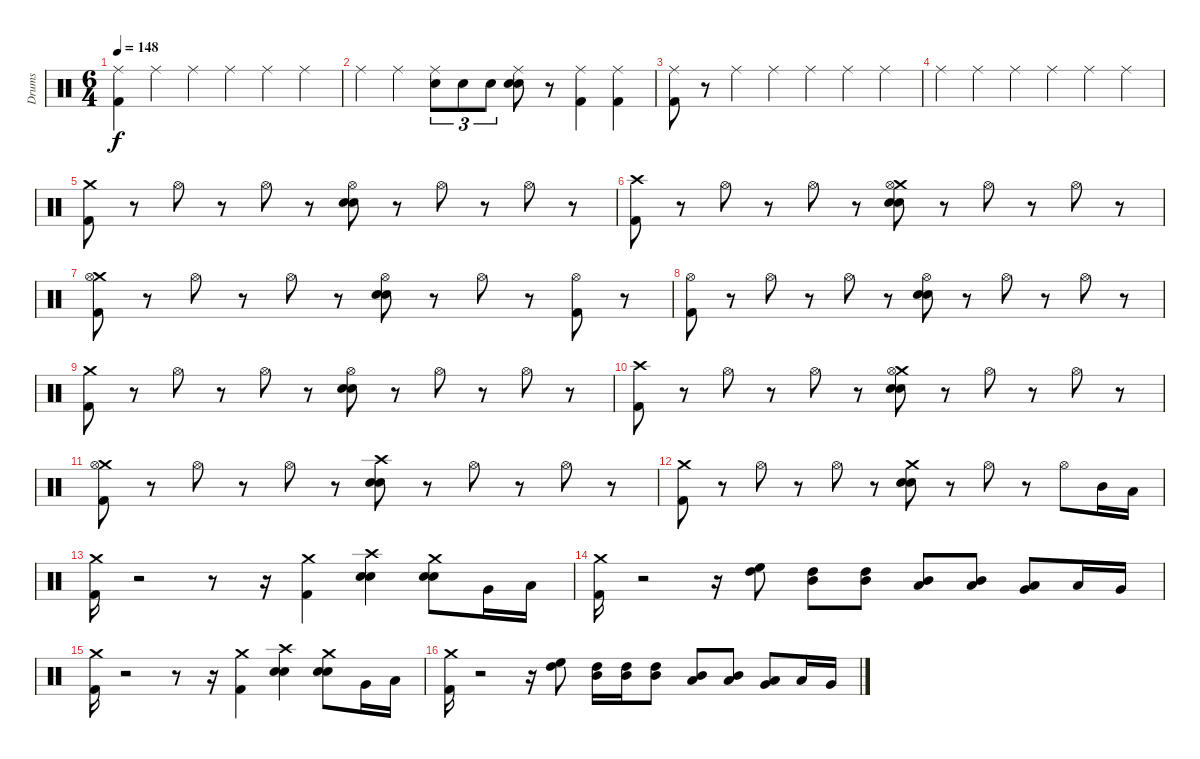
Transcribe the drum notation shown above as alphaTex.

\track ("Drums" "Drums") {instrument percussion}
\staff {score}
\articulation defaults
\ts (6 4)
\tempo 148
\clef neutral
\ks c
("Kick (hit) 2" "Ride (middle)").4{dy f} "Ride (middle)".4 "Ride (middle)".4 "Ride (middle)".4 "Ride (middle)".4 "Ride (middle)".4 |
"Ride (middle)".4 "Ride (middle)".4 ("Snare (hit) 2" "Ride (middle)").8{tu (3 2)} "Snare (hit) 2".8{tu (3 2)} "Snare (hit) 2".8{tu (3 2)} ("Electric Snare (hit)" "Snare (hit) 2" "Ride (middle)").8 r.8 ("Kick (hit) 2" "Ride (middle)").4 ("Kick (hit) 2" "Ride (middle)").4 |
("Kick (hit) 2" "Ride (middle)").8 r.8 "Ride (middle)".4 "Ride (middle)".4 "Ride (middle)".4 "Ride (middle)".4 "Ride (middle)".4 |
"Ride (middle)".4 "Ride (middle)".4 "Ride (middle)".4 "Ride (middle)".4 "Ride (middle)".4 "Ride (middle)".4 |
("Crash medium (hit)" "Kick (hit) 2").8 r.8 "Hi-Hat (open)".8 r.8 "Hi-Hat (open)".8 r.8 ("Hi-Hat (open)" "Snare (hit) 2" "Electric Snare (hit)").8 r.8 "Hi-Hat (open)".8 r.8 "Hi-Hat (open)".8 r.8 |
("Crash high (hit)" "Kick (hit) 2").8 r.8 "Hi-Hat (open)".8 r.8 "Hi-Hat (open)".8 r.8 ("Crash medium (hit)" "Snare (hit) 2" "Electric Snare (hit)" "Hi-Hat (open)").8 r.8 "Hi-Hat (open)".8 r.8 "Hi-Hat (open)".8 r.8 |
("Crash medium (hit)" "Kick (hit) 2" "Hi-Hat (open)").8 r.8 "Hi-Hat (open)".8 r.8 "Hi-Hat (open)".8 r.8 ("Snare (hit) 2" "Electric Snare (hit)" "Hi-Hat (open)").8 r.8 "Hi-Hat (open)".8 r.8 ("Kick (hit) 2" "Hi-Hat (open)").8 r.8 |
("Kick (hit) 2" "Hi-Hat (open)").8 r.8 "Hi-Hat (open)".8 r.8 "Hi-Hat (open)".8 r.8 ("Snare (hit) 2" "Electric Snare (hit)" "Hi-Hat (open)").8 r.8 "Hi-Hat (open)".8 r.8 "Hi-Hat (open)".8 r.8 |
("Crash medium (hit)" "Kick (hit) 2").8 r.8 "Hi-Hat (open)".8 r.8 "Hi-Hat (open)".8 r.8 ("Hi-Hat (open)" "Snare (hit) 2" "Electric Snare (hit)").8 r.8 "Hi-Hat (open)".8 r.8 "Hi-Hat (open)".8 r.8 |
("Crash high (hit)" "Kick (hit) 2").8 r.8 "Hi-Hat (open)".8 r.8 "Hi-Hat (open)".8 r.8 ("Crash medium (hit)" "Snare (hit) 2" "Electric Snare (hit)" "Hi-Hat (open)").8 r.8 "Hi-Hat (open)".8 r.8 "Hi-Hat (open)".8 r.8 |
("Crash medium (hit)" "Kick (hit) 2" "Hi-Hat (open)").8 r.8 "Hi-Hat (open)".8 r.8 "Hi-Hat (open)".8 r.8 ("Snare (hit) 2" "Electric Snare (hit)" "Crash high (hit)").8 r.8 "Hi-Hat (open)".8 r.8 "Hi-Hat (open)".8 r.8 |
("Kick (hit) 2" "Crash medium (hit)").8 r.8 "Hi-Hat (open)".8 r.8 "Hi-Hat (open)".8 r.8 ("Snare (hit) 2" "Electric Snare (hit)" "Crash medium (hit)").8 r.8 "Hi-Hat (open)".8 r.8 "Hi-Hat (open)".8 "Mid Tom (hit)".16 "Low Tom (hit)".16 |
("Crash medium (hit)" "Kick (hit) 2").16 r.2 r.8 r.16 ("Crash medium (hit)" "Kick (hit) 2").4 ("Electric Snare (hit)" "Crash high (hit)" "Snare (hit) 2").4 ("Electric Snare (hit)" "Crash medium (hit)" "Snare (hit) 2").8 "Very Low Tom (hit)".16 "Low Floor Tom (hit)".16 |
("Crash medium (hit)" "Kick (hit) 2").16 r.2 r.16 ("High Tom (hit)" "High Floor Tom (hit)").8 ("Mid Tom (hit)" "High Tom (hit)").8 ("High Tom (hit)" "Mid Tom (hit)").8 ("Mid Tom (hit)" "Low Tom (hit)").8 ("Mid Tom (hit)" "Low Tom (hit)").8 ("Low Tom (hit)" "Very Low Tom (hit)").8 "Low Tom (hit)".16 "Very Low Tom (hit)".16 |
("Crash medium (hit)" "Kick (hit) 2").16 r.2 r.8 r.16 ("Crash medium (hit)" "Kick (hit) 2").4 ("Electric Snare (hit)" "Crash high (hit)" "Snare (hit) 2").4 ("Electric Snare (hit)" "Crash medium (hit)" "Snare (hit) 2").8 "Very Low Tom (hit)".16 "Low Floor Tom (hit)".16 |
("Crash medium (hit)" "Kick (hit) 2").16 r.2 r.16 ("High Tom (hit)" "High Floor Tom (hit)").8 ("Mid Tom (hit)" "High Tom (hit)").16 ("Mid Tom (hit)" "High Tom (hit)").16 ("High Tom (hit)" "Mid Tom (hit)").8 ("Mid Tom (hit)" "Low Tom (hit)").8 ("Mid Tom (hit)" "Low Tom (hit)").8 ("Low Tom (hit)" "Very Low Tom (hit)").8 "Low Tom (hit)".16 "Very Low Tom (hit)".16
